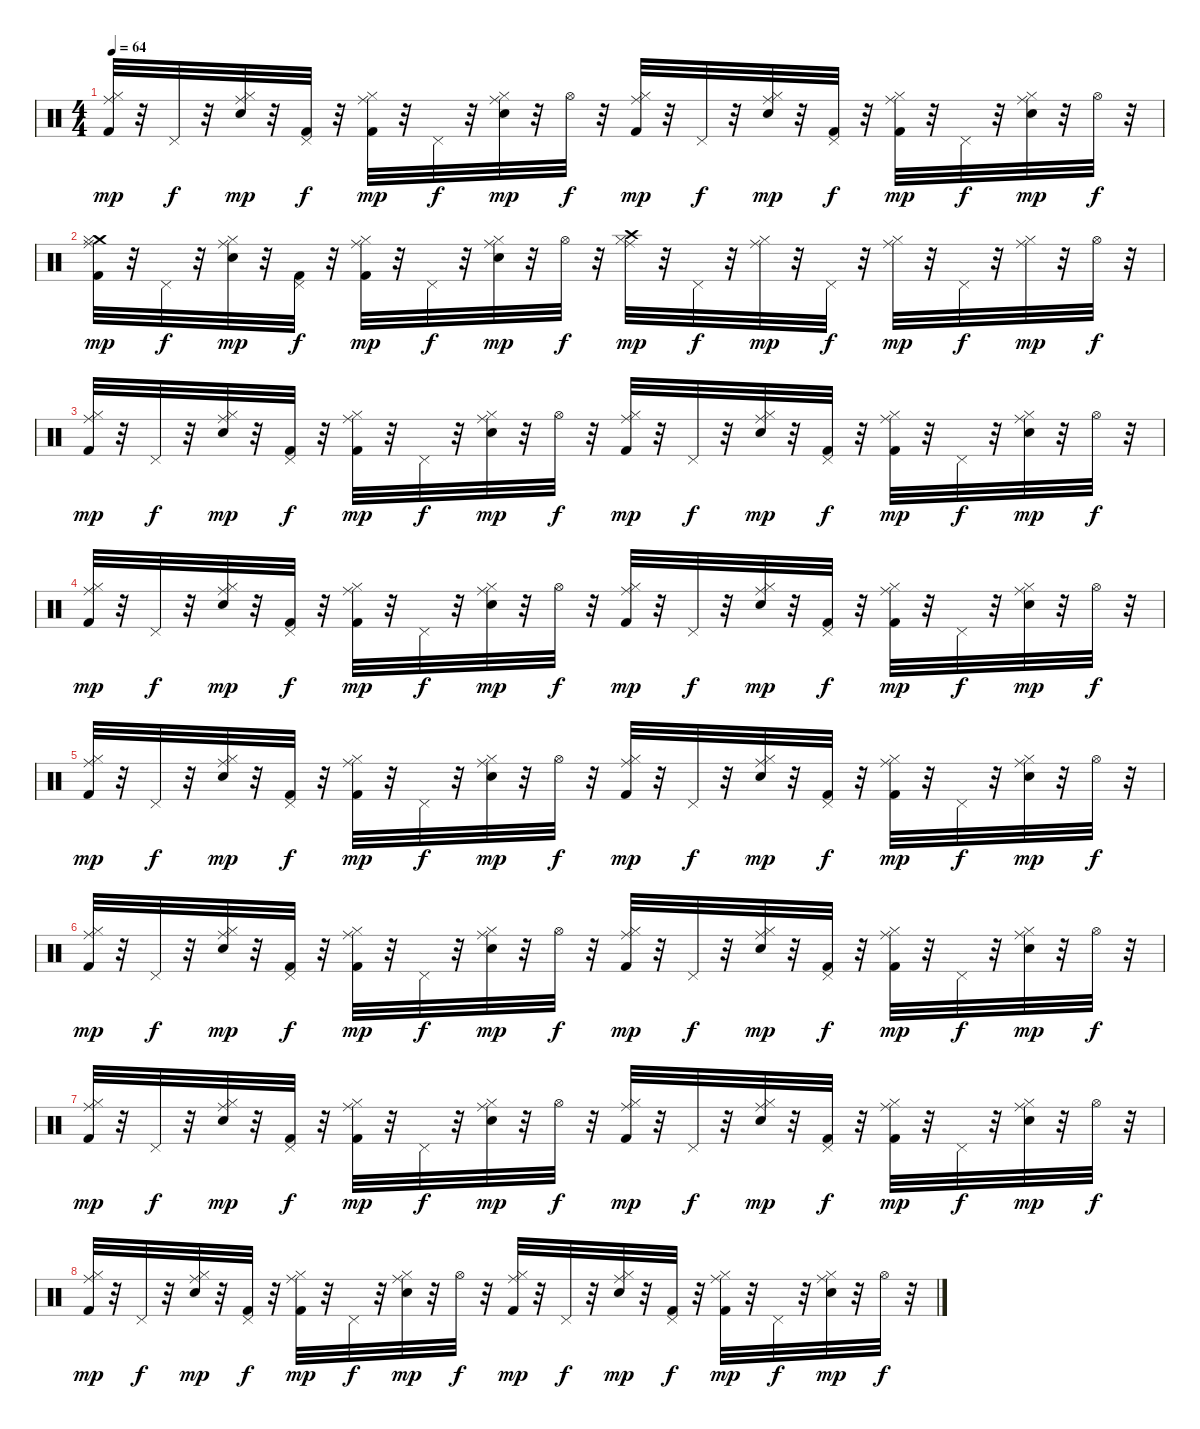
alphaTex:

\track "" {instrument percussion}
\staff {score}
\articulation defaults
\ts (4 4)
\tempo 64
\clef neutral
\ks c
("Ride (middle)" "Hi-Hat (closed)" "Kick (hit) 2").32{dy mp} r.32 "Pedal Hi-Hat (hit)".32{dy f} r.32 ("Ride (middle)" "Hi-Hat (closed)" "Snare (hit) 2").32{dy mp} r.32 ("Pedal Hi-Hat (hit)" "Kick (hit) 2").32{dy f} r.32 ("Ride (middle)" "Hi-Hat (closed)" "Kick (hit) 2").32{dy mp} r.32 "Pedal Hi-Hat (hit)".32{dy f} r.32 ("Snare (hit) 2" "Ride (middle)" "Hi-Hat (closed)").32{dy mp} r.32 "Hi-Hat (open)".32{dy f} r.32 ("Kick (hit) 2" "Hi-Hat (closed)" "Ride (middle)").32{dy mp} r.32 "Pedal Hi-Hat (hit)".32{dy f} r.32 ("Snare (hit) 2" "Hi-Hat (closed)" "Ride (middle)").32{dy mp} r.32 ("Kick (hit) 2" "Pedal Hi-Hat (hit)").32{dy f} r.32 ("Kick (hit) 2" "Hi-Hat (closed)" "Ride (middle)").32{dy mp} r.32 "Pedal Hi-Hat (hit)".32{dy f} r.32 ("Snare (hit) 2" "Hi-Hat (closed)" "Ride (middle)").32{dy mp} r.32 "Hi-Hat (open)".32{dy f} r.32 |
("Crash medium (hit)" "Ride (middle)" "Hi-Hat (closed)" "Kick (hit) 2").32{dy mp} r.32 "Pedal Hi-Hat (hit)".32{dy f} r.32 ("Ride (middle)" "Hi-Hat (closed)" "Snare (hit) 2").32{dy mp} r.32 ("Pedal Hi-Hat (hit)" "Kick (hit) 2").32{dy f} r.32 ("Ride (middle)" "Hi-Hat (closed)" "Kick (hit) 2").32{dy mp} r.32 "Pedal Hi-Hat (hit)".32{dy f} r.32 ("Snare (hit) 2" "Ride (middle)" "Hi-Hat (closed)").32{dy mp} r.32 "Hi-Hat (open)".32{dy f} r.32 ("Crash high (hit)" "Hi-Hat (closed)" "Ride (middle)").32{dy mp} r.32 "Pedal Hi-Hat (hit)".32{dy f} r.32 ("Hi-Hat (closed)" "Ride (middle)").32{dy mp} r.32 "Pedal Hi-Hat (hit)".32{dy f} r.32 ("Hi-Hat (closed)" "Ride (middle)").32{dy mp} r.32 "Pedal Hi-Hat (hit)".32{dy f} r.32 ("Hi-Hat (closed)" "Ride (middle)").32{dy mp} r.32 "Hi-Hat (open)".32{dy f} r.32 |
("Ride (middle)" "Hi-Hat (closed)" "Kick (hit) 2").32{dy mp} r.32 "Pedal Hi-Hat (hit)".32{dy f} r.32 ("Ride (middle)" "Hi-Hat (closed)" "Snare (hit) 2").32{dy mp} r.32 ("Pedal Hi-Hat (hit)" "Kick (hit) 2").32{dy f} r.32 ("Ride (middle)" "Hi-Hat (closed)" "Kick (hit) 2").32{dy mp} r.32 "Pedal Hi-Hat (hit)".32{dy f} r.32 ("Snare (hit) 2" "Ride (middle)" "Hi-Hat (closed)").32{dy mp} r.32 "Hi-Hat (open)".32{dy f} r.32 ("Kick (hit) 2" "Hi-Hat (closed)" "Ride (middle)").32{dy mp} r.32 "Pedal Hi-Hat (hit)".32{dy f} r.32 ("Snare (hit) 2" "Hi-Hat (closed)" "Ride (middle)").32{dy mp} r.32 ("Kick (hit) 2" "Pedal Hi-Hat (hit)").32{dy f} r.32 ("Kick (hit) 2" "Hi-Hat (closed)" "Ride (middle)").32{dy mp} r.32 "Pedal Hi-Hat (hit)".32{dy f} r.32 ("Snare (hit) 2" "Hi-Hat (closed)" "Ride (middle)").32{dy mp} r.32 "Hi-Hat (open)".32{dy f} r.32 |
("Ride (middle)" "Hi-Hat (closed)" "Kick (hit) 2").32{dy mp} r.32 "Pedal Hi-Hat (hit)".32{dy f} r.32 ("Ride (middle)" "Hi-Hat (closed)" "Snare (hit) 2").32{dy mp} r.32 ("Pedal Hi-Hat (hit)" "Kick (hit) 2").32{dy f} r.32 ("Ride (middle)" "Hi-Hat (closed)" "Kick (hit) 2").32{dy mp} r.32 "Pedal Hi-Hat (hit)".32{dy f} r.32 ("Snare (hit) 2" "Ride (middle)" "Hi-Hat (closed)").32{dy mp} r.32 "Hi-Hat (open)".32{dy f} r.32 ("Kick (hit) 2" "Hi-Hat (closed)" "Ride (middle)").32{dy mp} r.32 "Pedal Hi-Hat (hit)".32{dy f} r.32 ("Snare (hit) 2" "Hi-Hat (closed)" "Ride (middle)").32{dy mp} r.32 ("Kick (hit) 2" "Pedal Hi-Hat (hit)").32{dy f} r.32 ("Kick (hit) 2" "Hi-Hat (closed)" "Ride (middle)").32{dy mp} r.32 "Pedal Hi-Hat (hit)".32{dy f} r.32 ("Snare (hit) 2" "Hi-Hat (closed)" "Ride (middle)").32{dy mp} r.32 "Hi-Hat (open)".32{dy f} r.32 |
("Ride (middle)" "Hi-Hat (closed)" "Kick (hit) 2").32{dy mp} r.32 "Pedal Hi-Hat (hit)".32{dy f} r.32 ("Ride (middle)" "Hi-Hat (closed)" "Snare (hit) 2").32{dy mp} r.32 ("Pedal Hi-Hat (hit)" "Kick (hit) 2").32{dy f} r.32 ("Ride (middle)" "Hi-Hat (closed)" "Kick (hit) 2").32{dy mp} r.32 "Pedal Hi-Hat (hit)".32{dy f} r.32 ("Snare (hit) 2" "Ride (middle)" "Hi-Hat (closed)").32{dy mp} r.32 "Hi-Hat (open)".32{dy f} r.32 ("Kick (hit) 2" "Hi-Hat (closed)" "Ride (middle)").32{dy mp} r.32 "Pedal Hi-Hat (hit)".32{dy f} r.32 ("Snare (hit) 2" "Hi-Hat (closed)" "Ride (middle)").32{dy mp} r.32 ("Kick (hit) 2" "Pedal Hi-Hat (hit)").32{dy f} r.32 ("Kick (hit) 2" "Hi-Hat (closed)" "Ride (middle)").32{dy mp} r.32 "Pedal Hi-Hat (hit)".32{dy f} r.32 ("Snare (hit) 2" "Hi-Hat (closed)" "Ride (middle)").32{dy mp} r.32 "Hi-Hat (open)".32{dy f} r.32 |
("Ride (middle)" "Hi-Hat (closed)" "Kick (hit) 2").32{dy mp} r.32 "Pedal Hi-Hat (hit)".32{dy f} r.32 ("Ride (middle)" "Hi-Hat (closed)" "Snare (hit) 2").32{dy mp} r.32 ("Pedal Hi-Hat (hit)" "Kick (hit) 2").32{dy f} r.32 ("Ride (middle)" "Hi-Hat (closed)" "Kick (hit) 2").32{dy mp} r.32 "Pedal Hi-Hat (hit)".32{dy f} r.32 ("Snare (hit) 2" "Ride (middle)" "Hi-Hat (closed)").32{dy mp} r.32 "Hi-Hat (open)".32{dy f} r.32 ("Kick (hit) 2" "Hi-Hat (closed)" "Ride (middle)").32{dy mp} r.32 "Pedal Hi-Hat (hit)".32{dy f} r.32 ("Snare (hit) 2" "Hi-Hat (closed)" "Ride (middle)").32{dy mp} r.32 ("Kick (hit) 2" "Pedal Hi-Hat (hit)").32{dy f} r.32 ("Kick (hit) 2" "Hi-Hat (closed)" "Ride (middle)").32{dy mp} r.32 "Pedal Hi-Hat (hit)".32{dy f} r.32 ("Snare (hit) 2" "Hi-Hat (closed)" "Ride (middle)").32{dy mp} r.32 "Hi-Hat (open)".32{dy f} r.32 |
("Ride (middle)" "Hi-Hat (closed)" "Kick (hit) 2").32{dy mp} r.32 "Pedal Hi-Hat (hit)".32{dy f} r.32 ("Ride (middle)" "Hi-Hat (closed)" "Snare (hit) 2").32{dy mp} r.32 ("Pedal Hi-Hat (hit)" "Kick (hit) 2").32{dy f} r.32 ("Ride (middle)" "Hi-Hat (closed)" "Kick (hit) 2").32{dy mp} r.32 "Pedal Hi-Hat (hit)".32{dy f} r.32 ("Snare (hit) 2" "Ride (middle)" "Hi-Hat (closed)").32{dy mp} r.32 "Hi-Hat (open)".32{dy f} r.32 ("Kick (hit) 2" "Hi-Hat (closed)" "Ride (middle)").32{dy mp} r.32 "Pedal Hi-Hat (hit)".32{dy f} r.32 ("Snare (hit) 2" "Hi-Hat (closed)" "Ride (middle)").32{dy mp} r.32 ("Kick (hit) 2" "Pedal Hi-Hat (hit)").32{dy f} r.32 ("Kick (hit) 2" "Hi-Hat (closed)" "Ride (middle)").32{dy mp} r.32 "Pedal Hi-Hat (hit)".32{dy f} r.32 ("Snare (hit) 2" "Hi-Hat (closed)" "Ride (middle)").32{dy mp} r.32 "Hi-Hat (open)".32{dy f} r.32 |
("Ride (middle)" "Hi-Hat (closed)" "Kick (hit) 2").32{dy mp} r.32 "Pedal Hi-Hat (hit)".32{dy f} r.32 ("Ride (middle)" "Hi-Hat (closed)" "Snare (hit) 2").32{dy mp} r.32 ("Pedal Hi-Hat (hit)" "Kick (hit) 2").32{dy f} r.32 ("Ride (middle)" "Hi-Hat (closed)" "Kick (hit) 2").32{dy mp} r.32 "Pedal Hi-Hat (hit)".32{dy f} r.32 ("Snare (hit) 2" "Ride (middle)" "Hi-Hat (closed)").32{dy mp} r.32 "Hi-Hat (open)".32{dy f} r.32 ("Kick (hit) 2" "Hi-Hat (closed)" "Ride (middle)").32{dy mp} r.32 "Pedal Hi-Hat (hit)".32{dy f} r.32 ("Snare (hit) 2" "Hi-Hat (closed)" "Ride (middle)").32{dy mp} r.32 ("Kick (hit) 2" "Pedal Hi-Hat (hit)").32{dy f} r.32 ("Kick (hit) 2" "Hi-Hat (closed)" "Ride (middle)").32{dy mp} r.32 "Pedal Hi-Hat (hit)".32{dy f} r.32 ("Snare (hit) 2" "Hi-Hat (closed)" "Ride (middle)").32{dy mp} r.32 "Hi-Hat (open)".32{dy f} r.32
